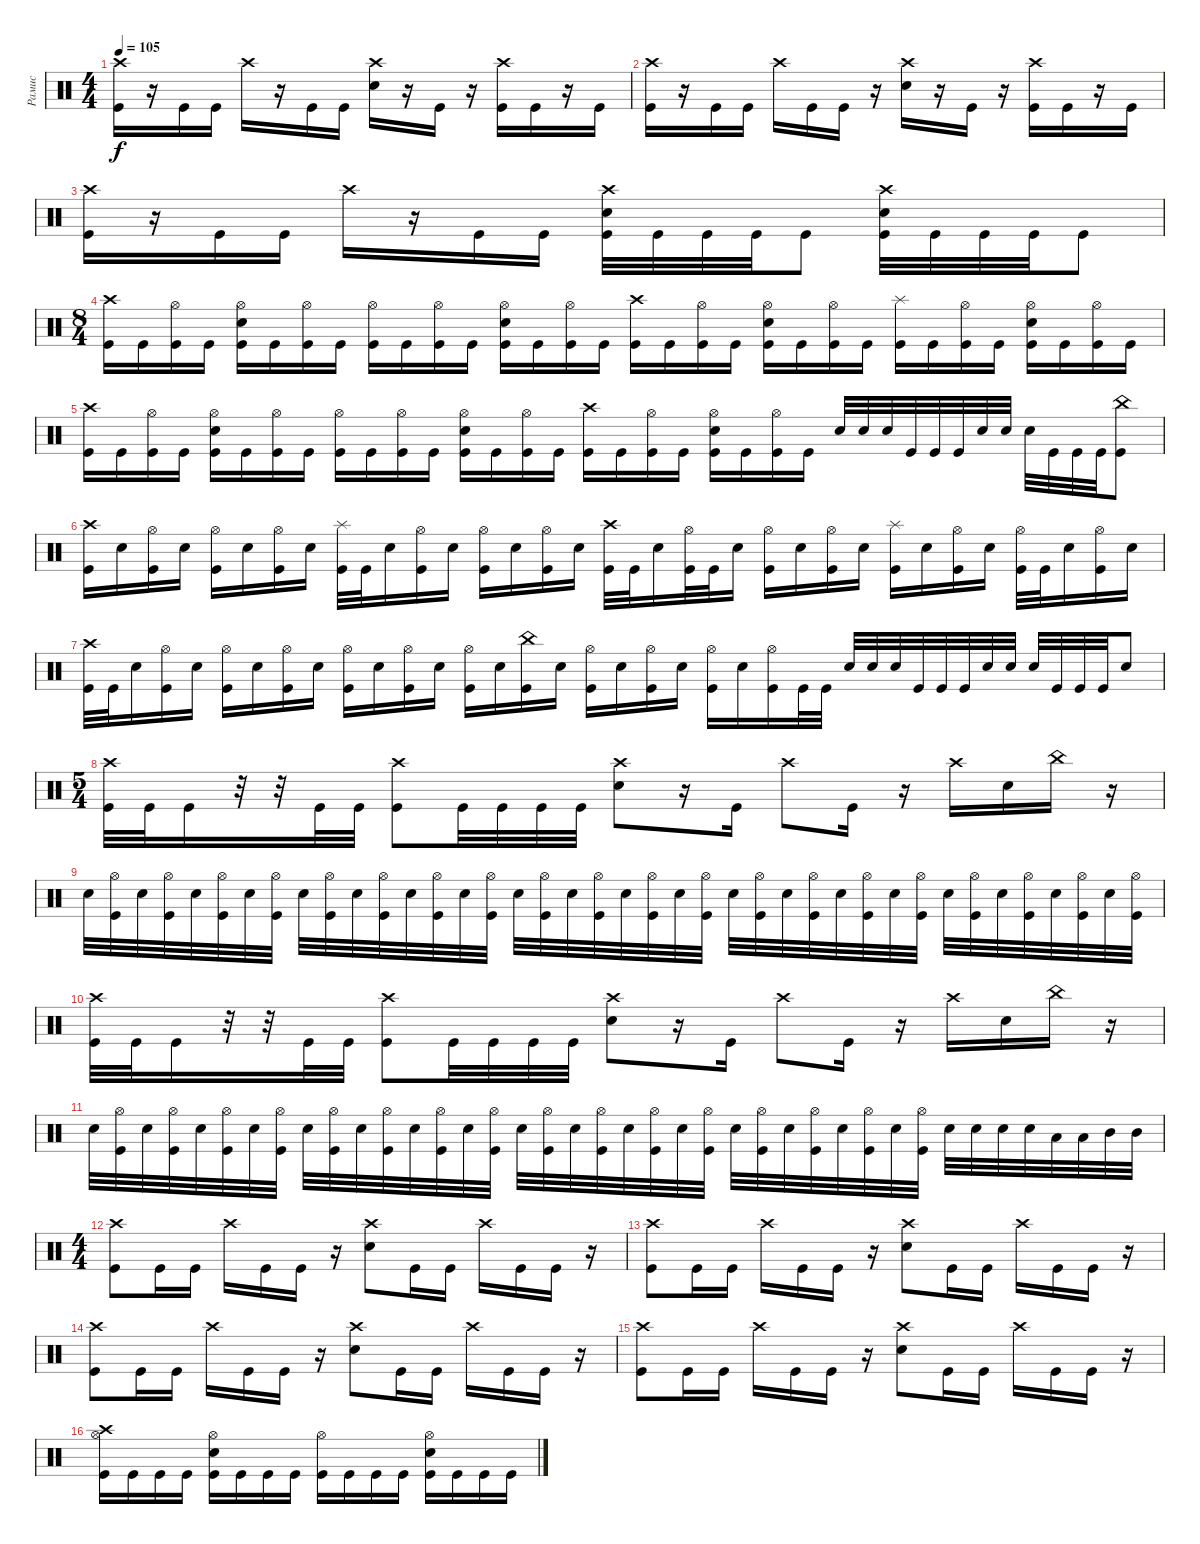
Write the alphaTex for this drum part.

\track ("Рамис" "Рамис") {instrument percussion}
\staff {score}
\articulation defaults
\ts (4 4)
\tempo 105
\clef neutral
\ks c
("Crash high (hit)" "Kick (hit)").16{dy f} r.16 "Kick (hit)".16 "Kick (hit)".16 "Crash high (hit)".16 r.16 "Kick (hit)".16 "Kick (hit)".16 ("Crash high (hit)" "Electric Snare (hit)").16 r.16 "Kick (hit)".16 r.16 ("Crash high (hit)" "Kick (hit)").16 "Kick (hit)".16 r.16 "Kick (hit)".16 |
("Crash high (hit)" "Kick (hit)").16 r.16 "Kick (hit)".16 "Kick (hit)".16 "Crash high (hit)".16 "Kick (hit)".16 "Kick (hit)".16 r.16 ("Crash high (hit)" "Electric Snare (hit)").16 r.16 "Kick (hit)".16 r.16 ("Crash high (hit)" "Kick (hit)").16 "Kick (hit)".16 r.16 "Kick (hit)".16 |
("Crash high (hit)" "Kick (hit)").16 r.16 "Kick (hit)".16 "Kick (hit)".16 "Crash high (hit)".16 r.16 "Kick (hit)".16 "Kick (hit)".16 ("Crash high (hit)" "Electric Snare (hit)" "Kick (hit)").32 "Kick (hit)".32 "Kick (hit)".32 "Kick (hit)".32 "Kick (hit)".8 ("Crash high (hit)" "Electric Snare (hit)" "Kick (hit)").32 "Kick (hit)".32 "Kick (hit)".32 "Kick (hit)".32 "Kick (hit)".8 |
\ts (8 4)
("Crash high (hit)" "Kick (hit)").16 "Kick (hit)".16 ("Hi-Hat (open)" "Kick (hit)").16 "Kick (hit)".16 ("Hi-Hat (open)" "Electric Snare (hit)" "Kick (hit)").16 "Kick (hit)".16 ("Hi-Hat (open)" "Kick (hit)").16 "Kick (hit)".16 ("Hi-Hat (open)" "Kick (hit)").16 "Kick (hit)".16 ("Hi-Hat (open)" "Kick (hit)").16 "Kick (hit)".16 ("Hi-Hat (open)" "Electric Snare (hit)" "Kick (hit)").16 "Kick (hit)".16 ("Hi-Hat (open)" "Kick (hit)").16 "Kick (hit)".16 ("Crash high (hit)" "Kick (hit)").16 "Kick (hit)".16 ("Hi-Hat (open)" "Kick (hit)").16 "Kick (hit)".16 ("Hi-Hat (open)" "Electric Snare (hit)" "Kick (hit)").16 "Kick (hit)".16 ("Hi-Hat (open)" "Kick (hit)").16 "Kick (hit)".16 ("Splash (hit)" "Kick (hit)").16 "Kick (hit)".16 ("Hi-Hat (open)" "Kick (hit)").16 "Kick (hit)".16 ("Hi-Hat (open)" "Electric Snare (hit)" "Kick (hit)").16 "Kick (hit)".16 ("Hi-Hat (open)" "Kick (hit)").16 "Kick (hit)".16 |
("Crash high (hit)" "Kick (hit)").16 "Kick (hit)".16 ("Hi-Hat (open)" "Kick (hit)").16 "Kick (hit)".16 ("Hi-Hat (open)" "Electric Snare (hit)" "Kick (hit)").16 "Kick (hit)".16 ("Hi-Hat (open)" "Kick (hit)").16 "Kick (hit)".16 ("Hi-Hat (open)" "Kick (hit)").16 "Kick (hit)".16 ("Hi-Hat (open)" "Kick (hit)").16 "Kick (hit)".16 ("Hi-Hat (open)" "Electric Snare (hit)" "Kick (hit)").16 "Kick (hit)".16 ("Hi-Hat (open)" "Kick (hit)").16 "Kick (hit)".16 ("Crash high (hit)" "Kick (hit)").16 "Kick (hit)".16 ("Hi-Hat (open)" "Kick (hit)").16 "Kick (hit)".16 ("Hi-Hat (open)" "Electric Snare (hit)" "Kick (hit)").16 "Kick (hit)".16 ("Hi-Hat (open)" "Kick (hit)").16 "Kick (hit)".16 "Electric Snare (hit)".32 "Electric Snare (hit)".32 "Electric Snare (hit)".32 "Kick (hit)".32 "Kick (hit)".32 "Kick (hit)".32 "Electric Snare (hit)".32 "Electric Snare (hit)".32 "Electric Snare (hit)".32 "Kick (hit)".32 "Kick (hit)".32 "Kick (hit)".32 ("Kick (hit)" "China (hit)").8 |
("Crash high (hit)" "Kick (hit)").16 "Electric Snare (hit)".16 ("Hi-Hat (open)" "Kick (hit)").16 "Electric Snare (hit)".16 ("Hi-Hat (open)" "Kick (hit)").16 "Electric Snare (hit)".16 ("Hi-Hat (open)" "Kick (hit)").16 "Electric Snare (hit)".16 ("Splash (hit)" "Kick (hit)").32 "Kick (hit)".32 "Electric Snare (hit)".16 ("Hi-Hat (open)" "Kick (hit)").16 "Electric Snare (hit)".16 ("Hi-Hat (open)" "Kick (hit)").16 "Electric Snare (hit)".16 ("Hi-Hat (open)" "Kick (hit)").16 "Electric Snare (hit)".16 ("Crash high (hit)" "Kick (hit)").32 "Kick (hit)".32 "Electric Snare (hit)".16 ("Hi-Hat (open)" "Kick (hit)").32 "Kick (hit)".32 "Electric Snare (hit)".16 ("Hi-Hat (open)" "Kick (hit)").16 "Electric Snare (hit)".16 ("Hi-Hat (open)" "Kick (hit)").16 "Electric Snare (hit)".16 ("Splash (hit)" "Kick (hit)").16 "Electric Snare (hit)".16 ("Hi-Hat (open)" "Kick (hit)").16 "Electric Snare (hit)".16 ("Hi-Hat (open)" "Kick (hit)").32 "Kick (hit)".32 "Electric Snare (hit)".16 ("Hi-Hat (open)" "Kick (hit)").16 "Electric Snare (hit)".16 |
("Crash high (hit)" "Kick (hit)").32 "Kick (hit)".32 "Electric Snare (hit)".16 ("Hi-Hat (open)" "Kick (hit)").16 "Electric Snare (hit)".16 ("Hi-Hat (open)" "Kick (hit)").16 "Electric Snare (hit)".16 ("Hi-Hat (open)" "Kick (hit)").16 "Electric Snare (hit)".16 ("Hi-Hat (open)" "Kick (hit)").16 "Electric Snare (hit)".16 ("Hi-Hat (open)" "Kick (hit)").16 "Electric Snare (hit)".16 ("Hi-Hat (open)" "Kick (hit)").16 "Electric Snare (hit)".16 ("China (hit)" "Kick (hit)").16 "Electric Snare (hit)".16 ("Hi-Hat (open)" "Kick (hit)").16 "Electric Snare (hit)".16 ("Hi-Hat (open)" "Kick (hit)").16 "Electric Snare (hit)".16 ("Hi-Hat (open)" "Kick (hit)").16 "Electric Snare (hit)".16 ("Hi-Hat (open)" "Kick (hit)").16 "Kick (hit)".32 "Kick (hit)".32 "Electric Snare (hit)".32 "Electric Snare (hit)".32 "Electric Snare (hit)".32 "Kick (hit)".32 "Kick (hit)".32 "Kick (hit)".32 "Electric Snare (hit)".32 "Electric Snare (hit)".32 "Electric Snare (hit)".32 "Kick (hit)".32 "Kick (hit)".32 "Kick (hit)".32 "Electric Snare (hit)".8 |
\ts (5 4)
("Crash high (hit)" "Kick (hit)").32 "Kick (hit)".32 "Kick (hit)".16 r.32 r.32 "Kick (hit)".32 "Kick (hit)".32 ("Crash high (hit)" "Kick (hit)").8 "Kick (hit)".32 "Kick (hit)".32 "Kick (hit)".32 "Kick (hit)".32 ("Crash high (hit)" "Electric Snare (hit)").8 r.16 "Kick (hit)".16 "Crash high (hit)".8 "Kick (hit)".16 r.16 "Crash high (hit)".16 "Electric Snare (hit)".16 "China (hit)".16 r.16 |
"Electric Snare (hit)".32 ("Hi-Hat (open)" "Kick (hit)").32 "Electric Snare (hit)".32 ("Hi-Hat (open)" "Kick (hit)").32 "Electric Snare (hit)".32 ("Hi-Hat (open)" "Kick (hit)").32 "Electric Snare (hit)".32 ("Hi-Hat (open)" "Kick (hit)").32 "Electric Snare (hit)".32 ("Hi-Hat (open)" "Kick (hit)").32 "Electric Snare (hit)".32 ("Hi-Hat (open)" "Kick (hit)").32 "Electric Snare (hit)".32 ("Hi-Hat (open)" "Kick (hit)").32 "Electric Snare (hit)".32 ("Hi-Hat (open)" "Kick (hit)").32 "Electric Snare (hit)".32 ("Hi-Hat (open)" "Kick (hit)").32 "Electric Snare (hit)".32 ("Hi-Hat (open)" "Kick (hit)").32 "Electric Snare (hit)".32 ("Hi-Hat (open)" "Kick (hit)").32 "Electric Snare (hit)".32 ("Hi-Hat (open)" "Kick (hit)").32 "Electric Snare (hit)".32 ("Hi-Hat (open)" "Kick (hit)").32 "Electric Snare (hit)".32 ("Hi-Hat (open)" "Kick (hit)").32 "Electric Snare (hit)".32 ("Hi-Hat (open)" "Kick (hit)").32 "Electric Snare (hit)".32 ("Hi-Hat (open)" "Kick (hit)").32 "Electric Snare (hit)".32 ("Hi-Hat (open)" "Kick (hit)").32 "Electric Snare (hit)".32 ("Hi-Hat (open)" "Kick (hit)").32 "Electric Snare (hit)".32 ("Hi-Hat (open)" "Kick (hit)").32 "Electric Snare (hit)".32 ("Hi-Hat (open)" "Kick (hit)").32 |
("Crash high (hit)" "Kick (hit)").32 "Kick (hit)".32 "Kick (hit)".16 r.32 r.32 "Kick (hit)".32 "Kick (hit)".32 ("Crash high (hit)" "Kick (hit)").8 "Kick (hit)".32 "Kick (hit)".32 "Kick (hit)".32 "Kick (hit)".32 ("Crash high (hit)" "Electric Snare (hit)").8 r.16 "Kick (hit)".16 "Crash high (hit)".8 "Kick (hit)".16 r.16 "Crash high (hit)".16 "Electric Snare (hit)".16 "China (hit)".16 r.16 |
"Electric Snare (hit)".32 ("Hi-Hat (open)" "Kick (hit)").32 "Electric Snare (hit)".32 ("Hi-Hat (open)" "Kick (hit)").32 "Electric Snare (hit)".32 ("Hi-Hat (open)" "Kick (hit)").32 "Electric Snare (hit)".32 ("Hi-Hat (open)" "Kick (hit)").32 "Electric Snare (hit)".32 ("Hi-Hat (open)" "Kick (hit)").32 "Electric Snare (hit)".32 ("Hi-Hat (open)" "Kick (hit)").32 "Electric Snare (hit)".32 ("Hi-Hat (open)" "Kick (hit)").32 "Electric Snare (hit)".32 ("Hi-Hat (open)" "Kick (hit)").32 "Electric Snare (hit)".32 ("Hi-Hat (open)" "Kick (hit)").32 "Electric Snare (hit)".32 ("Hi-Hat (open)" "Kick (hit)").32 "Electric Snare (hit)".32 ("Hi-Hat (open)" "Kick (hit)").32 "Electric Snare (hit)".32 ("Hi-Hat (open)" "Kick (hit)").32 "Electric Snare (hit)".32 ("Hi-Hat (open)" "Kick (hit)").32 "Electric Snare (hit)".32 ("Hi-Hat (open)" "Kick (hit)").32 "Electric Snare (hit)".32 ("Hi-Hat (open)" "Kick (hit)").32 "Electric Snare (hit)".32 ("Hi-Hat (open)" "Kick (hit)").32 "Electric Snare (hit)".32 "Electric Snare (hit)".32 "Electric Snare (hit)".32 "Electric Snare (hit)".32 "Low Tom (hit)".32 "Low Tom (hit)".32 "Mid Tom (hit)".32 "Mid Tom (hit)".32 |
\ts (4 4)
("Crash high (hit)" "Kick (hit)").8 "Kick (hit)".16 "Kick (hit)".16 "Crash high (hit)".16 "Kick (hit)".16 "Kick (hit)".16 r.16 ("Crash high (hit)" "Electric Snare (hit)").8 "Kick (hit)".16 "Kick (hit)".16 "Crash high (hit)".16 "Kick (hit)".16 "Kick (hit)".16 r.16 |
("Crash high (hit)" "Kick (hit)").8 "Kick (hit)".16 "Kick (hit)".16 "Crash high (hit)".16 "Kick (hit)".16 "Kick (hit)".16 r.16 ("Crash high (hit)" "Electric Snare (hit)").8 "Kick (hit)".16 "Kick (hit)".16 "Crash high (hit)".16 "Kick (hit)".16 "Kick (hit)".16 r.16 |
("Crash high (hit)" "Kick (hit)").8 "Kick (hit)".16 "Kick (hit)".16 "Crash high (hit)".16 "Kick (hit)".16 "Kick (hit)".16 r.16 ("Crash high (hit)" "Electric Snare (hit)").8 "Kick (hit)".16 "Kick (hit)".16 "Crash high (hit)".16 "Kick (hit)".16 "Kick (hit)".16 r.16 |
("Crash high (hit)" "Kick (hit)").8 "Kick (hit)".16 "Kick (hit)".16 "Crash high (hit)".16 "Kick (hit)".16 "Kick (hit)".16 r.16 ("Crash high (hit)" "Electric Snare (hit)").8 "Kick (hit)".16 "Kick (hit)".16 "Crash high (hit)".16 "Kick (hit)".16 "Kick (hit)".16 r.16 |
("Hi-Hat (open)" "Crash high (hit)" "Kick (hit)").16 "Kick (hit)".16 "Kick (hit)".16 "Kick (hit)".16 ("Hi-Hat (open)" "Electric Snare (hit)" "Kick (hit)").16 "Kick (hit)".16 "Kick (hit)".16 "Kick (hit)".16 ("Hi-Hat (open)" "Kick (hit)").16 "Kick (hit)".16 "Kick (hit)".16 "Kick (hit)".16 ("Hi-Hat (open)" "Electric Snare (hit)" "Kick (hit)").16 "Kick (hit)".16 "Kick (hit)".16 "Kick (hit)".16
